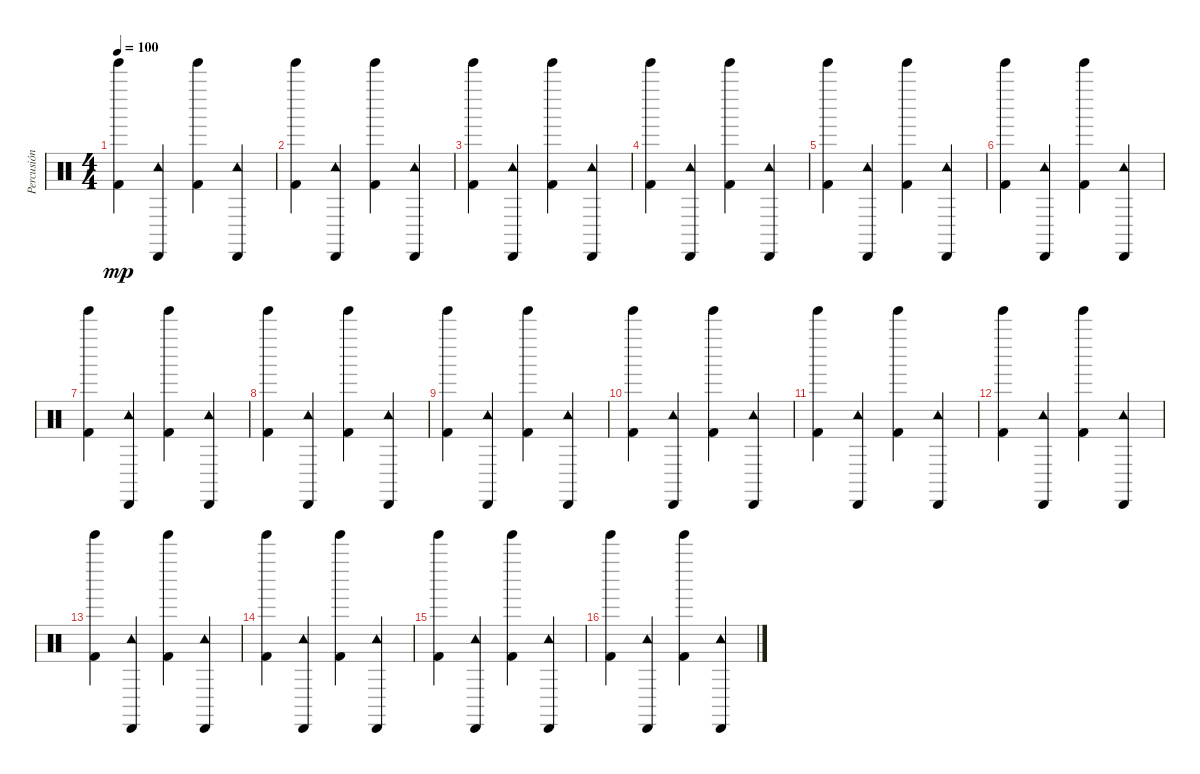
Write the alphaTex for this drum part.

\track ("Percusión" "Percusión") {instrument percussion}
\staff {score}
\articulation defaults
\ts (4 4)
\tempo 100
\clef neutral
\ks c
("Tinkle Bell (hit)" "Kick (hit) 2").4{dy mp} ("Cabasa (hit)" "Tambourine (hit)").4 ("Tinkle Bell (hit)" "Kick (hit) 2").4 ("Cabasa (hit)" "Tambourine (hit)").4 |
("Tinkle Bell (hit)" "Kick (hit) 2").4 ("Cabasa (hit)" "Tambourine (hit)").4 ("Tinkle Bell (hit)" "Kick (hit) 2").4 ("Cabasa (hit)" "Tambourine (hit)").4 |
("Tinkle Bell (hit)" "Kick (hit) 2").4 ("Cabasa (hit)" "Tambourine (hit)").4 ("Tinkle Bell (hit)" "Kick (hit) 2").4 ("Cabasa (hit)" "Tambourine (hit)").4 |
("Tinkle Bell (hit)" "Kick (hit) 2").4 ("Cabasa (hit)" "Tambourine (hit)").4 ("Tinkle Bell (hit)" "Kick (hit) 2").4 ("Cabasa (hit)" "Tambourine (hit)").4 |
("Tinkle Bell (hit)" "Kick (hit) 2").4 ("Cabasa (hit)" "Tambourine (hit)").4 ("Tinkle Bell (hit)" "Kick (hit) 2").4 ("Cabasa (hit)" "Tambourine (hit)").4 |
("Tinkle Bell (hit)" "Kick (hit) 2").4 ("Cabasa (hit)" "Tambourine (hit)").4 ("Tinkle Bell (hit)" "Kick (hit) 2").4 ("Cabasa (hit)" "Tambourine (hit)").4 |
("Tinkle Bell (hit)" "Kick (hit) 2").4 ("Cabasa (hit)" "Tambourine (hit)").4 ("Tinkle Bell (hit)" "Kick (hit) 2").4 ("Cabasa (hit)" "Tambourine (hit)").4 |
("Tinkle Bell (hit)" "Kick (hit) 2").4 ("Cabasa (hit)" "Tambourine (hit)").4 ("Tinkle Bell (hit)" "Kick (hit) 2").4 ("Cabasa (hit)" "Tambourine (hit)").4 |
("Tinkle Bell (hit)" "Kick (hit) 2").4 ("Cabasa (hit)" "Tambourine (hit)").4 ("Tinkle Bell (hit)" "Kick (hit) 2").4 ("Cabasa (hit)" "Tambourine (hit)").4 |
("Tinkle Bell (hit)" "Kick (hit) 2").4 ("Cabasa (hit)" "Tambourine (hit)").4 ("Tinkle Bell (hit)" "Kick (hit) 2").4 ("Cabasa (hit)" "Tambourine (hit)").4 |
("Tinkle Bell (hit)" "Kick (hit) 2").4 ("Cabasa (hit)" "Tambourine (hit)").4 ("Tinkle Bell (hit)" "Kick (hit) 2").4 ("Cabasa (hit)" "Tambourine (hit)").4 |
("Tinkle Bell (hit)" "Kick (hit) 2").4 ("Cabasa (hit)" "Tambourine (hit)").4 ("Tinkle Bell (hit)" "Kick (hit) 2").4 ("Cabasa (hit)" "Tambourine (hit)").4 |
("Tinkle Bell (hit)" "Kick (hit) 2").4 ("Cabasa (hit)" "Tambourine (hit)").4 ("Tinkle Bell (hit)" "Kick (hit) 2").4 ("Cabasa (hit)" "Tambourine (hit)").4 |
("Tinkle Bell (hit)" "Kick (hit) 2").4 ("Cabasa (hit)" "Tambourine (hit)").4 ("Tinkle Bell (hit)" "Kick (hit) 2").4 ("Cabasa (hit)" "Tambourine (hit)").4 |
("Tinkle Bell (hit)" "Kick (hit) 2").4 ("Cabasa (hit)" "Tambourine (hit)").4 ("Tinkle Bell (hit)" "Kick (hit) 2").4 ("Cabasa (hit)" "Tambourine (hit)").4 |
("Tinkle Bell (hit)" "Kick (hit) 2").4 ("Cabasa (hit)" "Tambourine (hit)").4 ("Tinkle Bell (hit)" "Kick (hit) 2").4 ("Cabasa (hit)" "Tambourine (hit)").4
